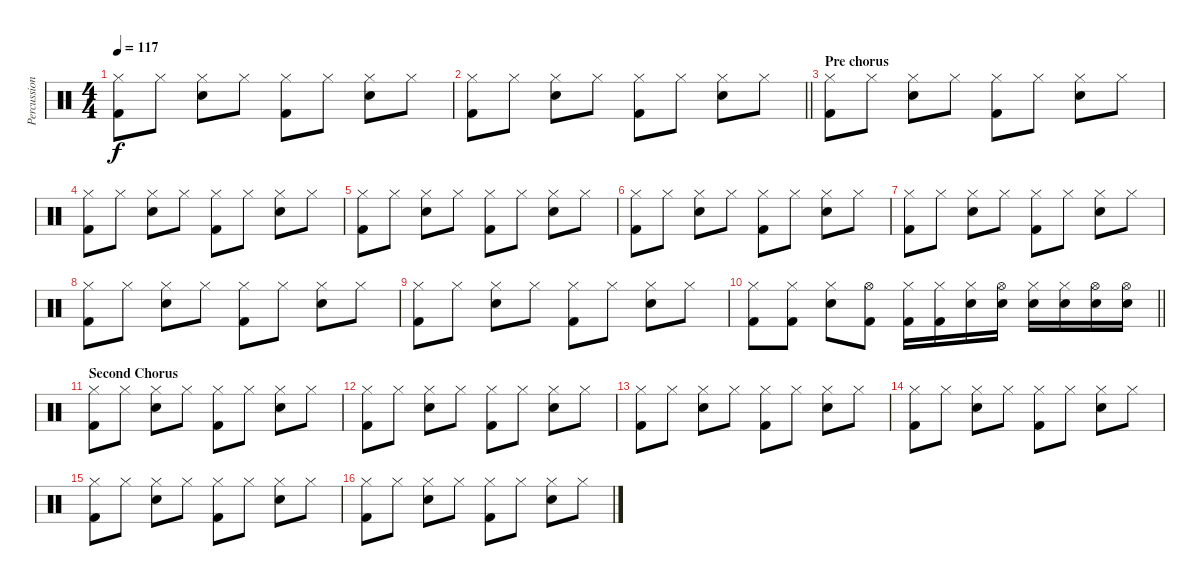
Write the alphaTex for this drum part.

\track ("Percussion" "Percussion") {instrument percussion}
\staff {score}
\articulation defaults
\ts (4 4)
\tempo 117
\clef neutral
\ks c
("Kick (hit) 2" "Hi-Hat (closed)").8{dy f} "Hi-Hat (closed)".8 ("Hi-Hat (closed)" "Snare (hit) 2").8 "Hi-Hat (closed)".8 ("Kick (hit) 2" "Hi-Hat (closed)").8 "Hi-Hat (closed)".8 ("Hi-Hat (closed)" "Snare (hit) 2").8 "Hi-Hat (closed)".8 |
\barLineRight lightlight
("Kick (hit) 2" "Hi-Hat (closed)").8 "Hi-Hat (closed)".8 ("Hi-Hat (closed)" "Snare (hit) 2").8 "Hi-Hat (closed)".8 ("Kick (hit) 2" "Hi-Hat (closed)").8 "Hi-Hat (closed)".8 ("Hi-Hat (closed)" "Snare (hit) 2").8 "Hi-Hat (closed)".8 |
\section ("" "Pre chorus")
("Kick (hit) 2" "Hi-Hat (closed)").8 "Hi-Hat (closed)".8 ("Hi-Hat (closed)" "Snare (hit) 2").8 "Hi-Hat (closed)".8 ("Kick (hit) 2" "Hi-Hat (closed)").8 "Hi-Hat (closed)".8 ("Hi-Hat (closed)" "Snare (hit) 2").8 "Hi-Hat (closed)".8 |
("Kick (hit) 2" "Hi-Hat (closed)").8 "Hi-Hat (closed)".8 ("Hi-Hat (closed)" "Snare (hit) 2").8 "Hi-Hat (closed)".8 ("Kick (hit) 2" "Hi-Hat (closed)").8 "Hi-Hat (closed)".8 ("Hi-Hat (closed)" "Snare (hit) 2").8 "Hi-Hat (closed)".8 |
("Kick (hit) 2" "Hi-Hat (closed)").8 "Hi-Hat (closed)".8 ("Hi-Hat (closed)" "Snare (hit) 2").8 "Hi-Hat (closed)".8 ("Kick (hit) 2" "Hi-Hat (closed)").8 "Hi-Hat (closed)".8 ("Hi-Hat (closed)" "Snare (hit) 2").8 "Hi-Hat (closed)".8 |
("Kick (hit) 2" "Hi-Hat (closed)").8 "Hi-Hat (closed)".8 ("Hi-Hat (closed)" "Snare (hit) 2").8 "Hi-Hat (closed)".8 ("Kick (hit) 2" "Hi-Hat (closed)").8 "Hi-Hat (closed)".8 ("Hi-Hat (closed)" "Snare (hit) 2").8 "Hi-Hat (closed)".8 |
("Kick (hit) 2" "Hi-Hat (closed)").8 "Hi-Hat (closed)".8 ("Hi-Hat (closed)" "Snare (hit) 2").8 "Hi-Hat (closed)".8 ("Kick (hit) 2" "Hi-Hat (closed)").8 "Hi-Hat (closed)".8 ("Hi-Hat (closed)" "Snare (hit) 2").8 "Hi-Hat (closed)".8 |
("Kick (hit) 2" "Hi-Hat (closed)").8 "Hi-Hat (closed)".8 ("Hi-Hat (closed)" "Snare (hit) 2").8 "Hi-Hat (closed)".8 ("Kick (hit) 2" "Hi-Hat (closed)").8 "Hi-Hat (closed)".8 ("Hi-Hat (closed)" "Snare (hit) 2").8 "Hi-Hat (closed)".8 |
("Kick (hit) 2" "Hi-Hat (closed)").8 "Hi-Hat (closed)".8 ("Hi-Hat (closed)" "Snare (hit) 2").8 "Hi-Hat (closed)".8 ("Kick (hit) 2" "Hi-Hat (closed)").8 "Hi-Hat (closed)".8 ("Hi-Hat (closed)" "Snare (hit) 2").8 "Hi-Hat (closed)".8 |
\barLineRight lightlight
("Kick (hit) 2" "Hi-Hat (closed)").8 ("Kick (hit) 2" "Hi-Hat (closed)").8 ("Snare (hit) 2" "Hi-Hat (closed)").8 ("Kick (hit) 2" "Hi-Hat (open)").8 ("Kick (hit) 2" "Hi-Hat (closed)").16 ("Kick (hit) 2" "Hi-Hat (closed)").16 ("Snare (hit) 2" "Hi-Hat (closed)").16 ("Snare (hit) 2" "Hi-Hat (open)").16 ("Snare (hit) 2" "Hi-Hat (closed)").16 ("Snare (hit) 2" "Hi-Hat (closed)").16 ("Snare (hit) 2" "Hi-Hat (open)").16 ("Snare (hit) 2" "Hi-Hat (open)").16 |
\section ("" "Second Chorus")
("Kick (hit) 2" "Hi-Hat (closed)").8 "Hi-Hat (closed)".8 ("Hi-Hat (closed)" "Snare (hit) 2").8 "Hi-Hat (closed)".8 ("Kick (hit) 2" "Hi-Hat (closed)").8 "Hi-Hat (closed)".8 ("Hi-Hat (closed)" "Snare (hit) 2").8 "Hi-Hat (closed)".8 |
("Kick (hit) 2" "Hi-Hat (closed)").8 "Hi-Hat (closed)".8 ("Hi-Hat (closed)" "Snare (hit) 2").8 "Hi-Hat (closed)".8 ("Kick (hit) 2" "Hi-Hat (closed)").8 "Hi-Hat (closed)".8 ("Hi-Hat (closed)" "Snare (hit) 2").8 "Hi-Hat (closed)".8 |
("Kick (hit) 2" "Hi-Hat (closed)").8 "Hi-Hat (closed)".8 ("Hi-Hat (closed)" "Snare (hit) 2").8 "Hi-Hat (closed)".8 ("Kick (hit) 2" "Hi-Hat (closed)").8 "Hi-Hat (closed)".8 ("Hi-Hat (closed)" "Snare (hit) 2").8 "Hi-Hat (closed)".8 |
("Kick (hit) 2" "Hi-Hat (closed)").8 "Hi-Hat (closed)".8 ("Hi-Hat (closed)" "Snare (hit) 2").8 "Hi-Hat (closed)".8 ("Kick (hit) 2" "Hi-Hat (closed)").8 "Hi-Hat (closed)".8 ("Hi-Hat (closed)" "Snare (hit) 2").8 "Hi-Hat (closed)".8 |
("Kick (hit) 2" "Hi-Hat (closed)").8 "Hi-Hat (closed)".8 ("Hi-Hat (closed)" "Snare (hit) 2").8 "Hi-Hat (closed)".8 ("Kick (hit) 2" "Hi-Hat (closed)").8 "Hi-Hat (closed)".8 ("Hi-Hat (closed)" "Snare (hit) 2").8 "Hi-Hat (closed)".8 |
("Kick (hit) 2" "Hi-Hat (closed)").8 "Hi-Hat (closed)".8 ("Hi-Hat (closed)" "Snare (hit) 2").8 "Hi-Hat (closed)".8 ("Kick (hit) 2" "Hi-Hat (closed)").8 "Hi-Hat (closed)".8 ("Hi-Hat (closed)" "Snare (hit) 2").8 "Hi-Hat (closed)".8
